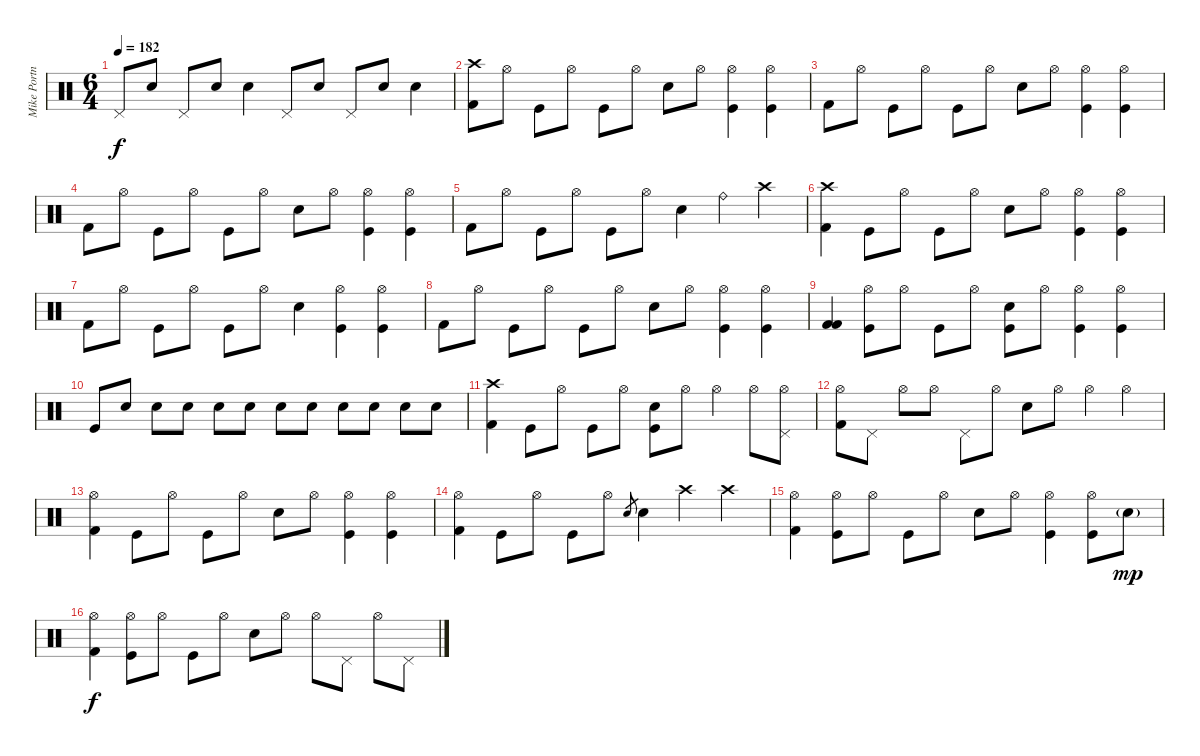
\track ("Mike Portnoy" "Mike Portn") {instrument percussion}
\staff {score}
\articulation defaults
\ts (6 4)
\tempo 182
\clef neutral
\ks c "Pedal Hi-Hat (hit)".8{dy f} "Electric Snare (hit)".8 "Pedal Hi-Hat (hit)".8 "Electric Snare (hit)".8 "Electric Snare (hit)".4 "Pedal Hi-Hat (hit)".8 "Electric Snare (hit)".8 "Pedal Hi-Hat (hit)".8 "Electric Snare (hit)".8 "Electric Snare (hit)".4
|
("Crash high (hit)" "Kick (hit) 2").8 "Hi-Hat (open)".8 "Kick (hit)".8 "Hi-Hat (open)".8 "Kick (hit)".8 "Hi-Hat (open)".8 "Electric Snare (hit)".8 "Hi-Hat (open)".8 ("Hi-Hat (open)" "Kick (hit)").4 ("Hi-Hat (open)" "Kick (hit)").4 |
"Kick (hit) 2".8 "Hi-Hat (open)".8 "Kick (hit)".8 "Hi-Hat (open)".8 "Kick (hit)".8 "Hi-Hat (open)".8 "Electric Snare (hit)".8 "Hi-Hat (open)".8 ("Hi-Hat (open)" "Kick (hit)").4 ("Hi-Hat (open)" "Kick (hit)").4 |
"Kick (hit) 2".8 "Hi-Hat (open)".8 "Kick (hit)".8 "Hi-Hat (open)".8 "Kick (hit)".8 "Hi-Hat (open)".8 "Electric Snare (hit)".8 "Hi-Hat (open)".8 ("Hi-Hat (open)" "Kick (hit)").4 ("Hi-Hat (open)" "Kick (hit)").4 |
"Kick (hit) 2".8 "Hi-Hat (open)".8 "Kick (hit)".8 "Hi-Hat (open)".8 "Kick (hit)".8 "Hi-Hat (open)".8 "Electric Snare (hit)".4 "Ride (bell)".4 "Crash high (hit)".4 |
("Crash high (hit)" "Kick (hit) 2").4 "Kick (hit)".8 "Hi-Hat (open)".8 "Kick (hit)".8 "Hi-Hat (open)".8 "Electric Snare (hit)".8 "Hi-Hat (open)".8 ("Hi-Hat (open)" "Kick (hit)").4 ("Hi-Hat (open)" "Kick (hit)").4 |
"Kick (hit) 2".8 "Hi-Hat (open)".8 "Kick (hit)".8 "Hi-Hat (open)".8 "Kick (hit)".8 "Hi-Hat (open)".8 "Electric Snare (hit)".4 ("Hi-Hat (open)" "Kick (hit)").4 ("Hi-Hat (open)" "Kick (hit)").4 |
"Kick (hit) 2".8 "Hi-Hat (open)".8 "Kick (hit)".8 "Hi-Hat (open)".8 "Kick (hit)".8 "Hi-Hat (open)".8 "Electric Snare (hit)".8 "Hi-Hat (open)".8 ("Hi-Hat (open)" "Kick (hit)").4 ("Hi-Hat (open)" "Kick (hit)").4 |
("Kick (hit) 2" "Kick (hit) 2").4 ("Hi-Hat (open)" "Kick (hit)").8 "Hi-Hat (open)".8 "Kick (hit)".8 "Hi-Hat (open)".8 ("Electric Snare (hit)" "Kick (hit)").8 "Hi-Hat (open)".8 ("Hi-Hat (open)" "Kick (hit)").4 ("Hi-Hat (open)" "Kick (hit)").4 |
"Kick (hit)".8 "Electric Snare (hit)".8 "Electric Snare (hit)".8 "Electric Snare (hit)".8 "Electric Snare (hit)".8 "Electric Snare (hit)".8 "Electric Snare (hit)".8 "Electric Snare (hit)".8 "Electric Snare (hit)".8 "Electric Snare (hit)".8 "Electric Snare (hit)".8 "Electric Snare (hit)".8 |
("Crash high (hit)" "Kick (hit) 2").4 "Kick (hit)".8 "Hi-Hat (open)".8 "Kick (hit)".8 "Hi-Hat (open)".8 ("Electric Snare (hit)" "Kick (hit)").8 "Hi-Hat (open)".8 "Hi-Hat (open)".4 "Hi-Hat (open)".8 ("Pedal Hi-Hat (hit)" "Hi-Hat (open)").8 |
("Hi-Hat (open)" "Kick (hit) 2").8 "Pedal Hi-Hat (hit)".8 "Hi-Hat (open)".8 "Hi-Hat (open)".8 "Pedal Hi-Hat (hit)".8 "Hi-Hat (open)".8 "Electric Snare (hit)".8 "Hi-Hat (open)".8 "Hi-Hat (open)".4 "Hi-Hat (open)".4 |
("Hi-Hat (open)" "Kick (hit) 2").4 "Kick (hit)".8 "Hi-Hat (open)".8 "Kick (hit)".8 "Hi-Hat (open)".8 "Electric Snare (hit)".8 "Hi-Hat (open)".8 ("Hi-Hat (open)" "Kick (hit)").4 ("Hi-Hat (open)" "Kick (hit)").4 |
("Hi-Hat (open)" "Kick (hit) 2").4 "Kick (hit)".8 "Hi-Hat (open)".8 "Kick (hit)".8 "Hi-Hat (open)".8 "Electric Snare (hit)".8{gr} "Electric Snare (hit)".4 "Crash high (hit)".4 "Crash high (hit)".4 |
("Hi-Hat (open)" "Kick (hit) 2").4 ("Hi-Hat (open)" "Kick (hit)").8 "Hi-Hat (open)".8 "Kick (hit)".8 "Hi-Hat (open)".8 "Electric Snare (hit)".8 "Hi-Hat (open)".8 ("Hi-Hat (open)" "Kick (hit)").4 ("Hi-Hat (open)" "Kick (hit)").8 "Electric Snare (hit)"{g}.8{dy mp} |
("Hi-Hat (open)" "Kick (hit) 2").4{dy f} ("Hi-Hat (open)" "Kick (hit)").8 "Hi-Hat (open)".8 "Kick (hit)".8 "Hi-Hat (open)".8 "Electric Snare (hit)".8 "Hi-Hat (open)".8 "Hi-Hat (open)".8 "Pedal Hi-Hat (hit)".8 "Hi-Hat (open)".8 "Pedal Hi-Hat (hit)".8
